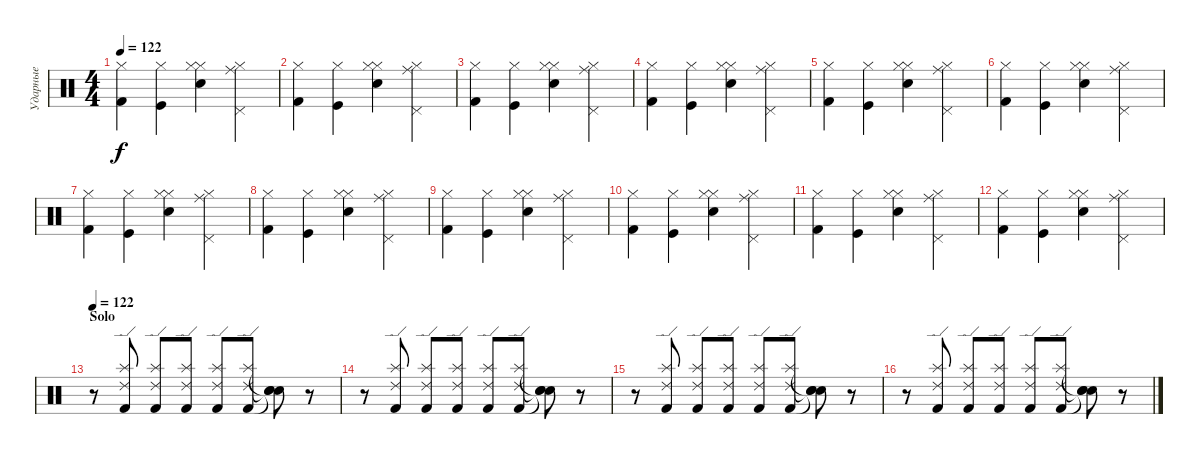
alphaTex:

\track ("Ударные" "Ударные") {instrument percussion}
\staff {score}
\articulation defaults
\ts (4 4)
\tempo 122
\clef neutral
\ks c
("Hi-Hat (closed)" "Kick (hit) 2").4{dy f} ("Hi-Hat (closed)" "Kick (hit)").4 ("Hi-Hat (closed)" "Hi-Hat (closed)" "Electric Snare (hit)").4 ("Hi-Hat (closed)" "Ride (middle)" "Pedal Hi-Hat (hit)").4 |
("Hi-Hat (closed)" "Kick (hit) 2").4 ("Hi-Hat (closed)" "Kick (hit)").4 ("Hi-Hat (closed)" "Hi-Hat (closed)" "Electric Snare (hit)").4 ("Hi-Hat (closed)" "Ride (middle)" "Pedal Hi-Hat (hit)").4 |
("Hi-Hat (closed)" "Kick (hit) 2").4 ("Hi-Hat (closed)" "Kick (hit)").4 ("Hi-Hat (closed)" "Hi-Hat (closed)" "Electric Snare (hit)").4 ("Hi-Hat (closed)" "Ride (middle)" "Pedal Hi-Hat (hit)").4 |
("Hi-Hat (closed)" "Kick (hit) 2").4 ("Hi-Hat (closed)" "Kick (hit)").4 ("Hi-Hat (closed)" "Hi-Hat (closed)" "Electric Snare (hit)").4 ("Hi-Hat (closed)" "Ride (middle)" "Pedal Hi-Hat (hit)").4 |
("Hi-Hat (closed)" "Kick (hit) 2").4 ("Hi-Hat (closed)" "Kick (hit)").4 ("Hi-Hat (closed)" "Hi-Hat (closed)" "Electric Snare (hit)").4 ("Hi-Hat (closed)" "Ride (middle)" "Pedal Hi-Hat (hit)").4 |
("Hi-Hat (closed)" "Kick (hit) 2").4 ("Hi-Hat (closed)" "Kick (hit)").4 ("Hi-Hat (closed)" "Hi-Hat (closed)" "Electric Snare (hit)").4 ("Hi-Hat (closed)" "Ride (middle)" "Pedal Hi-Hat (hit)").4 |
("Hi-Hat (closed)" "Kick (hit) 2").4 ("Hi-Hat (closed)" "Kick (hit)").4 ("Hi-Hat (closed)" "Hi-Hat (closed)" "Electric Snare (hit)").4 ("Hi-Hat (closed)" "Ride (middle)" "Pedal Hi-Hat (hit)").4 |
("Hi-Hat (closed)" "Kick (hit) 2").4 ("Hi-Hat (closed)" "Kick (hit)").4 ("Hi-Hat (closed)" "Hi-Hat (closed)" "Electric Snare (hit)").4 ("Hi-Hat (closed)" "Ride (middle)" "Pedal Hi-Hat (hit)").4 |
("Hi-Hat (closed)" "Kick (hit) 2").4 ("Hi-Hat (closed)" "Kick (hit)").4 ("Hi-Hat (closed)" "Hi-Hat (closed)" "Electric Snare (hit)").4 ("Hi-Hat (closed)" "Ride (middle)" "Pedal Hi-Hat (hit)").4 |
("Hi-Hat (closed)" "Kick (hit) 2").4 ("Hi-Hat (closed)" "Kick (hit)").4 ("Hi-Hat (closed)" "Hi-Hat (closed)" "Electric Snare (hit)").4 ("Hi-Hat (closed)" "Ride (middle)" "Pedal Hi-Hat (hit)").4 |
("Hi-Hat (closed)" "Kick (hit) 2").4 ("Hi-Hat (closed)" "Kick (hit)").4 ("Hi-Hat (closed)" "Hi-Hat (closed)" "Electric Snare (hit)").4 ("Hi-Hat (closed)" "Ride (middle)" "Pedal Hi-Hat (hit)").4 |
("Hi-Hat (closed)" "Kick (hit) 2").4 ("Hi-Hat (closed)" "Kick (hit)").4 ("Hi-Hat (closed)" "Hi-Hat (closed)" "Electric Snare (hit)").4 ("Hi-Hat (closed)" "Ride (middle)" "Pedal Hi-Hat (hit)").4 |
\section ("" "Solo")
\tempo 122
r.8 ("Splash (hit)" "Ride (edge) 2" "Kick (hit) 2").8 ("Splash (hit)" "Ride (edge) 2" "Kick (hit) 2").8 ("Splash (hit)" "Ride (edge) 2" "Kick (hit) 2").8 ("Splash (hit)" "Ride (edge) 2" "Kick (hit) 2").8 ("Splash (hit)" "Ride (edge) 2" "Kick (hit) 2").8 ("Snare (hit)"{t} "Snare (hit)"{t} "Snare (hit)"{t}).8 r.8 |
r.8 ("Splash (hit)" "Ride (edge) 2" "Kick (hit) 2").8 ("Splash (hit)" "Ride (edge) 2" "Kick (hit) 2").8 ("Splash (hit)" "Ride (edge) 2" "Kick (hit) 2").8 ("Splash (hit)" "Ride (edge) 2" "Kick (hit) 2").8 ("Splash (hit)" "Ride (edge) 2" "Kick (hit) 2").8 ("Snare (hit)"{t} "Snare (hit)"{t} "Snare (hit)"{t}).8 r.8 |
r.8 ("Splash (hit)" "Ride (edge) 2" "Kick (hit) 2").8 ("Splash (hit)" "Ride (edge) 2" "Kick (hit) 2").8 ("Splash (hit)" "Ride (edge) 2" "Kick (hit) 2").8 ("Splash (hit)" "Ride (edge) 2" "Kick (hit) 2").8 ("Splash (hit)" "Ride (edge) 2" "Kick (hit) 2").8 ("Snare (hit)"{t} "Snare (hit)"{t} "Snare (hit)"{t}).8 r.8 |
r.8 ("Splash (hit)" "Ride (edge) 2" "Kick (hit) 2").8 ("Splash (hit)" "Ride (edge) 2" "Kick (hit) 2").8 ("Splash (hit)" "Ride (edge) 2" "Kick (hit) 2").8 ("Splash (hit)" "Ride (edge) 2" "Kick (hit) 2").8 ("Splash (hit)" "Ride (edge) 2" "Kick (hit) 2").8 ("Snare (hit)"{t} "Snare (hit)"{t} "Snare (hit)"{t}).8 r.8
